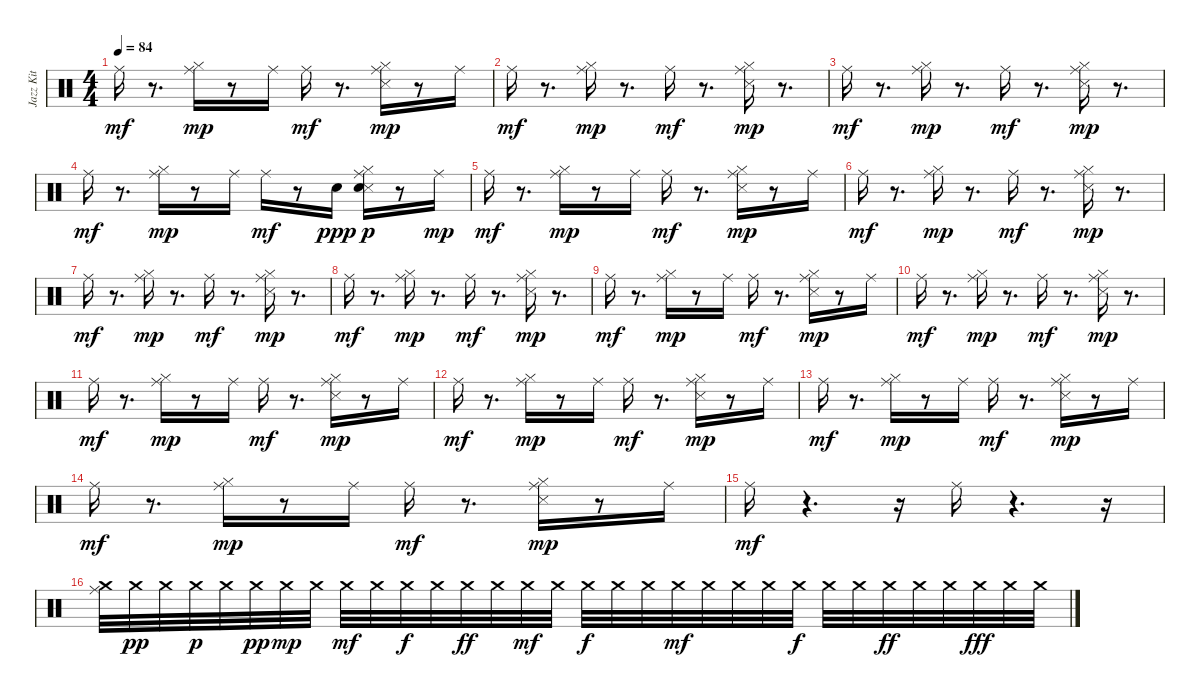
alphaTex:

\track ("Jazz Kit" "Jazz Kit") {instrument percussion}
\staff {score}
\articulation defaults
\ts (4 4)
\tempo 84
\clef neutral
\ks c "Ride (middle)".16{dy mf}
r.8{d} ("Ride (middle)" "Hi-Hat (closed)").16{dy mp} r.8 "Ride (middle)".16 "Ride (middle)".16{dy mf} r.8{d} ("Ride (middle)" "Snare (side stick) 3" "Hi-Hat (closed)").16{dy mp} r.8 "Ride (middle)".16 |
"Ride (middle)".16{dy mf} r.8{d} ("Ride (middle)" "Hi-Hat (closed)").16{dy mp} r.8{d} "Ride (middle)".16{dy mf} r.8{d} ("Ride (middle)" "Snare (side stick) 3" "Hi-Hat (closed)").16{dy mp} r.8{d} |
"Ride (middle)".16{dy mf} r.8{d} ("Ride (middle)" "Hi-Hat (closed)").16{dy mp} r.8{d} "Ride (middle)".16{dy mf} r.8{d} ("Ride (middle)" "Snare (side stick) 3" "Hi-Hat (closed)").16{dy mp} r.8{d} |
"Ride (middle)".16{dy mf} r.8{d} ("Ride (middle)" "Hi-Hat (closed)").16{dy mp} r.8 "Ride (middle)".16 "Ride (middle)".16{dy mf} r.8 "Snare (hit) 2".16{dy ppp} ("Ride (middle)" "Snare (side stick) 3" "Hi-Hat (closed)" "Snare (hit) 2").16{dy p} r.8 "Ride (middle)".16{dy mp} |
"Ride (middle)".16{dy mf} r.8{d} ("Ride (middle)" "Hi-Hat (closed)").16{dy mp} r.8 "Ride (middle)".16 "Ride (middle)".16{dy mf} r.8{d} ("Ride (middle)" "Snare (side stick) 3" "Hi-Hat (closed)").16{dy mp} r.8 "Ride (middle)".16 |
"Ride (middle)".16{dy mf} r.8{d} ("Ride (middle)" "Hi-Hat (closed)").16{dy mp} r.8{d} "Ride (middle)".16{dy mf} r.8{d} ("Ride (middle)" "Snare (side stick) 3" "Hi-Hat (closed)").16{dy mp} r.8{d} |
"Ride (middle)".16{dy mf} r.8{d} ("Ride (middle)" "Hi-Hat (closed)").16{dy mp} r.8{d} "Ride (middle)".16{dy mf} r.8{d} ("Ride (middle)" "Snare (side stick) 3" "Hi-Hat (closed)").16{dy mp} r.8{d} |
"Ride (middle)".16{dy mf} r.8{d} ("Ride (middle)" "Hi-Hat (closed)").16{dy mp} r.8{d} "Ride (middle)".16{dy mf} r.8{d} ("Ride (middle)" "Snare (side stick) 3" "Hi-Hat (closed)").16{dy mp} r.8{d} |
"Ride (middle)".16{dy mf} r.8{d} ("Ride (middle)" "Hi-Hat (closed)").16{dy mp} r.8 "Ride (middle)".16 "Ride (middle)".16{dy mf} r.8{d} ("Ride (middle)" "Snare (side stick) 3" "Hi-Hat (closed)").16{dy mp} r.8 "Ride (middle)".16 |
"Ride (middle)".16{dy mf} r.8{d} ("Ride (middle)" "Hi-Hat (closed)").16{dy mp} r.8{d} "Ride (middle)".16{dy mf} r.8{d} ("Ride (middle)" "Snare (side stick) 3" "Hi-Hat (closed)").16{dy mp} r.8{d} |
"Ride (middle)".16{dy mf} r.8{d} ("Ride (middle)" "Hi-Hat (closed)").16{dy mp} r.8 "Ride (middle)".16 "Ride (middle)".16{dy mf} r.8{d} ("Ride (middle)" "Snare (side stick) 3" "Hi-Hat (closed)").16{dy mp} r.8 "Ride (middle)".16 |
"Ride (middle)".16{dy mf} r.8{d} ("Ride (middle)" "Hi-Hat (closed)").16{dy mp} r.8 "Ride (middle)".16 "Ride (middle)".16{dy mf} r.8{d} ("Ride (middle)" "Snare (side stick) 3" "Hi-Hat (closed)").16{dy mp} r.8 "Ride (middle)".16 |
"Ride (middle)".16{dy mf} r.8{d} ("Ride (middle)" "Hi-Hat (closed)").16{dy mp} r.8 "Ride (middle)".16 "Ride (middle)".16{dy mf} r.8{d} ("Ride (middle)" "Snare (side stick) 3" "Hi-Hat (closed)").16{dy mp} r.8 "Ride (middle)".16 |
"Ride (middle)".16{dy mf} r.8{d} ("Ride (middle)" "Hi-Hat (closed)").16{dy mp} r.8 "Ride (middle)".16 "Ride (middle)".16{dy mf} r.8{d} ("Ride (middle)" "Snare (side stick) 3" "Hi-Hat (closed)").16{dy mp} r.8 "Ride (middle)".16 |
"Ride (middle)".16{dy mf} r.4{d} r.16 "Ride (middle)".16 r.4{d} r.16 |
("Ride (middle)" "Crash medium (hit)").32 "Crash medium (hit)".32{dy pp} "Crash medium (hit)".32 "Crash medium (hit)".32{dy p} "Crash medium (hit)".32 "Crash medium (hit)".32{dy pp} "Crash medium (hit)".32{dy mp} "Crash medium (hit)".32 "Crash medium (hit)".32{dy mf} "Crash medium (hit)".32 "Crash medium (hit)".32{dy f} "Crash medium (hit)".32 "Crash medium (hit)".32{dy ff} "Crash medium (hit)".32 "Crash medium (hit)".32{dy mf} "Crash medium (hit)".32 "Crash medium (hit)".32{dy f} "Crash medium (hit)".32 "Crash medium (hit)".32 "Crash medium (hit)".32{dy mf} "Crash medium (hit)".32 "Crash medium (hit)".32 "Crash medium (hit)".32 "Crash medium (hit)".32{dy f} "Crash medium (hit)".32 "Crash medium (hit)".32 "Crash medium (hit)".32{dy ff} "Crash medium (hit)".32 "Crash medium (hit)".32 "Crash medium (hit)".32{dy fff} "Crash medium (hit)".32 "Crash medium (hit)".32
